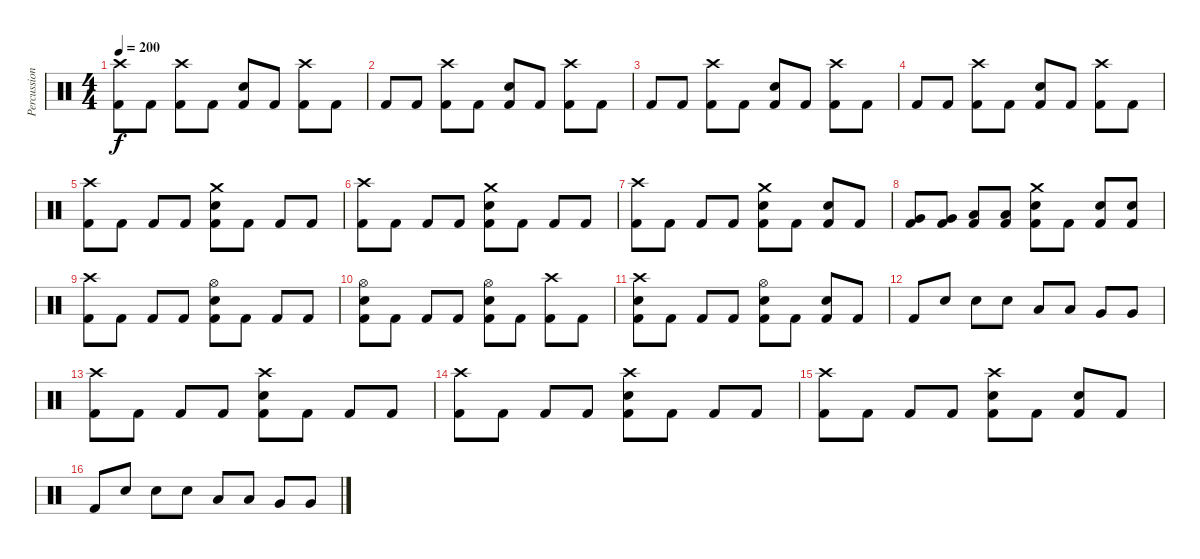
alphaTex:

\track ("Percussion" "Percussion") {instrument percussion}
\staff {score}
\articulation defaults
\ts (4 4)
\tempo 200
\clef neutral
\ks c
("Crash high (hit)" "Kick (hit) 2").8{dy f} "Kick (hit) 2".8 ("Crash high (hit)" "Kick (hit) 2").8 "Kick (hit) 2".8 ("Electric Snare (hit)" "Kick (hit) 2").8 "Kick (hit) 2".8 ("Crash high (hit)" "Kick (hit) 2").8 "Kick (hit) 2".8 |
"Kick (hit) 2".8 "Kick (hit) 2".8 ("Crash high (hit)" "Kick (hit) 2").8 "Kick (hit) 2".8 ("Electric Snare (hit)" "Kick (hit) 2").8 "Kick (hit) 2".8 ("Crash high (hit)" "Kick (hit) 2").8 "Kick (hit) 2".8 |
"Kick (hit) 2".8 "Kick (hit) 2".8 ("Crash high (hit)" "Kick (hit) 2").8 "Kick (hit) 2".8 ("Electric Snare (hit)" "Kick (hit) 2").8 "Kick (hit) 2".8 ("Crash high (hit)" "Kick (hit) 2").8 "Kick (hit) 2".8 |
"Kick (hit) 2".8 "Kick (hit) 2".8 ("Crash high (hit)" "Kick (hit) 2").8 "Kick (hit) 2".8 ("Electric Snare (hit)" "Kick (hit) 2").8 "Kick (hit) 2".8 ("Crash high (hit)" "Kick (hit) 2").8 "Kick (hit) 2".8 |
("Crash high (hit)" "Kick (hit) 2").8 "Kick (hit) 2".8 "Kick (hit) 2".8 "Kick (hit) 2".8 ("Crash medium (hit)" "Electric Snare (hit)" "Kick (hit) 2").8 "Kick (hit) 2".8 "Kick (hit) 2".8 "Kick (hit) 2".8 |
("Crash high (hit)" "Kick (hit) 2").8 "Kick (hit) 2".8 "Kick (hit) 2".8 "Kick (hit) 2".8 ("Crash medium (hit)" "Electric Snare (hit)" "Kick (hit) 2").8 "Kick (hit) 2".8 "Kick (hit) 2".8 "Kick (hit) 2".8 |
("Crash high (hit)" "Kick (hit) 2").8 "Kick (hit) 2".8 "Kick (hit) 2".8 "Kick (hit) 2".8 ("Crash medium (hit)" "Electric Snare (hit)" "Kick (hit) 2").8 "Kick (hit) 2".8 ("Electric Snare (hit)" "Kick (hit) 2").8 "Kick (hit) 2".8 |
("Very Low Tom (hit)" "Kick (hit) 2").8{volume 7} ("Very Low Tom (hit)" "Kick (hit) 2").8 ("Low Floor Tom (hit)" "Kick (hit) 2").8 ("Low Floor Tom (hit)" "Kick (hit) 2").8 ("Crash medium (hit)" "Electric Snare (hit)" "Kick (hit) 2").8 "Kick (hit) 2".8 ("Electric Snare (hit)" "Kick (hit) 2").8 ("Electric Snare (hit)" "Kick (hit) 2").8 |
("Crash high (hit)" "Kick (hit) 2").8 "Kick (hit) 2".8 "Kick (hit) 2".8 "Kick (hit) 2".8 ("Hi-Hat (open)" "Electric Snare (hit)" "Kick (hit) 2").8 "Kick (hit) 2".8 "Kick (hit) 2".8 "Kick (hit) 2".8 |
("Hi-Hat (open)" "Electric Snare (hit)" "Kick (hit) 2").8 "Kick (hit) 2".8 "Kick (hit) 2".8 "Kick (hit) 2".8 ("Hi-Hat (open)" "Electric Snare (hit)" "Kick (hit) 2").8 "Kick (hit) 2".8 ("Crash high (hit)" "Kick (hit) 2").8 "Kick (hit) 2".8 |
("Crash high (hit)" "Electric Snare (hit)" "Kick (hit) 2").8 "Kick (hit) 2".8 "Kick (hit) 2".8 "Kick (hit) 2".8 ("Hi-Hat (open)" "Electric Snare (hit)" "Kick (hit) 2").8 "Kick (hit) 2".8 ("Electric Snare (hit)" "Kick (hit) 2").8 "Kick (hit) 2".8 |
"Kick (hit) 2".8 "Electric Snare (hit)".8 "Electric Snare (hit)".8 "Electric Snare (hit)".8 "Low Tom (hit)".8 "Low Tom (hit)".8 "Very Low Tom (hit)".8 "Very Low Tom (hit)".8 |
("Crash high (hit)" "Kick (hit) 2").8{volume 1} "Kick (hit) 2".8 "Kick (hit) 2".8 "Kick (hit) 2".8 ("Crash high (hit)" "Electric Snare (hit)" "Kick (hit) 2").8 "Kick (hit) 2".8 "Kick (hit) 2".8 "Kick (hit) 2".8 |
("Crash high (hit)" "Kick (hit) 2").8 "Kick (hit) 2".8 "Kick (hit) 2".8 "Kick (hit) 2".8 ("Crash high (hit)" "Electric Snare (hit)" "Kick (hit) 2").8 "Kick (hit) 2".8 "Kick (hit) 2".8 "Kick (hit) 2".8 |
("Crash high (hit)" "Kick (hit) 2").8 "Kick (hit) 2".8 "Kick (hit) 2".8 "Kick (hit) 2".8 ("Crash high (hit)" "Electric Snare (hit)" "Kick (hit) 2").8 "Kick (hit) 2".8 ("Electric Snare (hit)" "Kick (hit) 2").8 "Kick (hit) 2".8 |
"Kick (hit) 2".8 "Electric Snare (hit)".8 "Electric Snare (hit)".8 "Electric Snare (hit)".8 "Low Tom (hit)".8 "Low Tom (hit)".8 "Very Low Tom (hit)".8 "Very Low Tom (hit)".8
